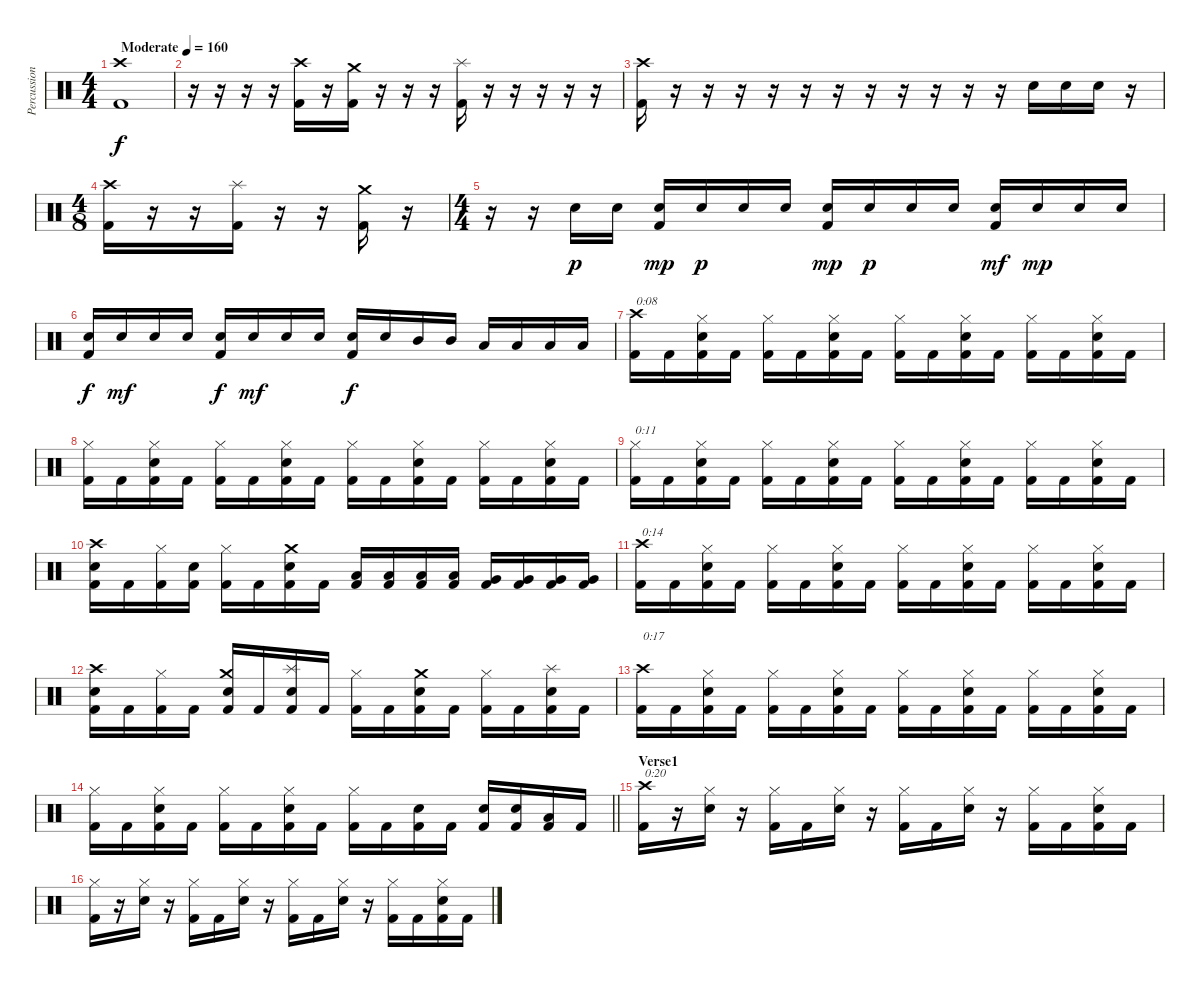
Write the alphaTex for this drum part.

\track ("Percussion" "Percussion") {instrument percussion}
\staff {score}
\articulation defaults
\ts (4 4)
\tempo (160 "Moderate")
\clef neutral
\ks c
("Crash high (hit)" "Kick (hit) 2").1{dy f} |
r.16 r.16 r.16 r.16 ("Crash high (hit)" "Kick (hit) 2").16 r.16 ("Crash medium (hit)" "Kick (hit) 2").16 r.16 r.16 r.16 ("Splash (hit)" "Kick (hit) 2").16 r.16 r.16 r.16 r.16 r.16 |
("Crash high (hit)" "Kick (hit) 2").16 r.16 r.16 r.16 r.16 r.16 r.16 r.16 r.16 r.16 r.16 r.16 "Electric Snare (hit)".16 "Electric Snare (hit)".16 "Electric Snare (hit)".16 r.16 |
\ts (4 8)
("Crash high (hit)" "Kick (hit) 2").16 r.16 r.16 ("Splash (hit)" "Kick (hit) 2").16 r.16 r.16 ("Crash medium (hit)" "Kick (hit) 2").16 r.16 |
\ts (4 4)
r.16 r.16 "Electric Snare (hit)".16{dy p} "Electric Snare (hit)".16 ("Electric Snare (hit)" "Kick (hit) 2").16{dy mp} "Electric Snare (hit)".16{dy p} "Electric Snare (hit)".16 "Electric Snare (hit)".16 ("Electric Snare (hit)" "Kick (hit) 2").16{dy mp} "Electric Snare (hit)".16{dy p} "Electric Snare (hit)".16 "Electric Snare (hit)".16 ("Electric Snare (hit)" "Kick (hit) 2").16{dy mf} "Electric Snare (hit)".16{dy mp} "Electric Snare (hit)".16 "Electric Snare (hit)".16 |
("Electric Snare (hit)" "Kick (hit) 2").16{dy f} "Electric Snare (hit)".16{dy mf} "Electric Snare (hit)".16 "Electric Snare (hit)".16 ("Electric Snare (hit)" "Kick (hit) 2").16{dy f} "Electric Snare (hit)".16{dy mf} "Electric Snare (hit)".16 "Electric Snare (hit)".16 ("Electric Snare (hit)" "Kick (hit) 2").16{dy f} "Electric Snare (hit)".16 "Mid Tom (hit)".16 "Mid Tom (hit)".16 "Low Tom (hit)".16 "Low Tom (hit)".16 "Low Tom (hit)".16 "Low Tom (hit)".16 |
("Crash high (hit)" "Kick (hit) 2").16{txt "0:08"} "Kick (hit) 2".16 ("Hi-Hat (closed)" "Electric Snare (hit)" "Kick (hit) 2").16 "Kick (hit) 2".16 ("Hi-Hat (closed)" "Kick (hit) 2").16 "Kick (hit) 2".16 ("Hi-Hat (closed)" "Electric Snare (hit)" "Kick (hit) 2").16 "Kick (hit) 2".16 ("Hi-Hat (closed)" "Kick (hit) 2").16 "Kick (hit) 2".16 ("Hi-Hat (closed)" "Electric Snare (hit)" "Kick (hit) 2").16 "Kick (hit) 2".16 ("Hi-Hat (closed)" "Kick (hit) 2").16 "Kick (hit) 2".16 ("Hi-Hat (closed)" "Electric Snare (hit)" "Kick (hit) 2").16 "Kick (hit) 2".16 |
("Hi-Hat (closed)" "Kick (hit) 2").16 "Kick (hit) 2".16 ("Hi-Hat (closed)" "Electric Snare (hit)" "Kick (hit) 2").16 "Kick (hit) 2".16 ("Hi-Hat (closed)" "Kick (hit) 2").16 "Kick (hit) 2".16 ("Hi-Hat (closed)" "Electric Snare (hit)" "Kick (hit) 2").16 "Kick (hit) 2".16 ("Hi-Hat (closed)" "Kick (hit) 2").16 "Kick (hit) 2".16 ("Hi-Hat (closed)" "Electric Snare (hit)" "Kick (hit) 2").16 "Kick (hit) 2".16 ("Hi-Hat (closed)" "Kick (hit) 2").16 "Kick (hit) 2".16 ("Hi-Hat (closed)" "Electric Snare (hit)" "Kick (hit) 2").16 "Kick (hit) 2".16 |
("Hi-Hat (closed)" "Kick (hit) 2").16{txt "0:11"} "Kick (hit) 2".16 ("Hi-Hat (closed)" "Electric Snare (hit)" "Kick (hit) 2").16 "Kick (hit) 2".16 ("Hi-Hat (closed)" "Kick (hit) 2").16 "Kick (hit) 2".16 ("Hi-Hat (closed)" "Electric Snare (hit)" "Kick (hit) 2").16 "Kick (hit) 2".16 ("Hi-Hat (closed)" "Kick (hit) 2").16 "Kick (hit) 2".16 ("Hi-Hat (closed)" "Electric Snare (hit)" "Kick (hit) 2").16 "Kick (hit) 2".16 ("Hi-Hat (closed)" "Kick (hit) 2").16 "Kick (hit) 2".16 ("Hi-Hat (closed)" "Electric Snare (hit)" "Kick (hit) 2").16 "Kick (hit) 2".16 |
("Crash high (hit)" "Electric Snare (hit)" "Kick (hit) 2").16 "Kick (hit) 2".16 ("Hi-Hat (closed)" "Kick (hit) 2").16 ("Electric Snare (hit)" "Kick (hit) 2").16 ("Hi-Hat (closed)" "Kick (hit) 2").16 "Kick (hit) 2".16 ("Crash medium (hit)" "Electric Snare (hit)" "Kick (hit) 2").16 "Kick (hit) 2".16 ("Low Tom (hit)" "Kick (hit) 2").16 ("Low Tom (hit)" "Kick (hit) 2").16 ("Low Tom (hit)" "Kick (hit) 2").16 ("Low Tom (hit)" "Kick (hit) 2").16 ("Very Low Tom (hit)" "Kick (hit) 2").16 ("Very Low Tom (hit)" "Kick (hit) 2").16 ("Very Low Tom (hit)" "Kick (hit) 2").16 ("Very Low Tom (hit)" "Kick (hit) 2").16 |
("Crash high (hit)" "Kick (hit) 2").16{txt "0:14"} "Kick (hit) 2".16 ("Hi-Hat (closed)" "Electric Snare (hit)" "Kick (hit) 2").16 "Kick (hit) 2".16 ("Hi-Hat (closed)" "Kick (hit) 2").16 "Kick (hit) 2".16 ("Hi-Hat (closed)" "Electric Snare (hit)" "Kick (hit) 2").16 "Kick (hit) 2".16 ("Hi-Hat (closed)" "Kick (hit) 2").16 "Kick (hit) 2".16 ("Hi-Hat (closed)" "Electric Snare (hit)" "Kick (hit) 2").16 "Kick (hit) 2".16 ("Hi-Hat (closed)" "Kick (hit) 2").16 "Kick (hit) 2".16 ("Hi-Hat (closed)" "Electric Snare (hit)" "Kick (hit) 2").16 "Kick (hit) 2".16 |
("Crash high (hit)" "Electric Snare (hit)" "Kick (hit) 2").16 "Kick (hit) 2".16 ("Hi-Hat (closed)" "Kick (hit) 2").16 "Kick (hit) 2".16 ("Crash medium (hit)" "Electric Snare (hit)" "Kick (hit) 2").16 "Kick (hit) 2".16 ("Splash (hit)" "Electric Snare (hit)" "Kick (hit) 2").16 "Kick (hit) 2".16 ("Hi-Hat (closed)" "Kick (hit) 2").16 "Kick (hit) 2".16 ("Crash medium (hit)" "Electric Snare (hit)" "Kick (hit) 2").16 "Kick (hit) 2".16 ("Hi-Hat (closed)" "Kick (hit) 2").16 "Kick (hit) 2".16 ("Splash (hit)" "Electric Snare (hit)" "Kick (hit) 2").16 "Kick (hit) 2".16 |
("Crash high (hit)" "Kick (hit) 2").16{txt "0:17"} "Kick (hit) 2".16 ("Hi-Hat (closed)" "Electric Snare (hit)" "Kick (hit) 2").16 "Kick (hit) 2".16 ("Hi-Hat (closed)" "Kick (hit) 2").16 "Kick (hit) 2".16 ("Hi-Hat (closed)" "Electric Snare (hit)" "Kick (hit) 2").16 "Kick (hit) 2".16 ("Hi-Hat (closed)" "Kick (hit) 2").16 "Kick (hit) 2".16 ("Hi-Hat (closed)" "Electric Snare (hit)" "Kick (hit) 2").16 "Kick (hit) 2".16 ("Hi-Hat (closed)" "Kick (hit) 2").16 "Kick (hit) 2".16 ("Hi-Hat (closed)" "Electric Snare (hit)" "Kick (hit) 2").16 "Kick (hit) 2".16 |
\barLineRight lightlight
("Hi-Hat (closed)" "Kick (hit) 2").16 "Kick (hit) 2".16 ("Hi-Hat (closed)" "Electric Snare (hit)" "Kick (hit) 2").16 "Kick (hit) 2".16 ("Hi-Hat (closed)" "Kick (hit) 2").16 "Kick (hit) 2".16 ("Hi-Hat (closed)" "Electric Snare (hit)" "Kick (hit) 2").16 "Kick (hit) 2".16 ("Hi-Hat (closed)" "Kick (hit) 2").16 "Kick (hit) 2".16 ("Electric Snare (hit)" "Kick (hit) 2").16 "Kick (hit) 2".16 ("Electric Snare (hit)" "Kick (hit) 2").16 ("Electric Snare (hit)" "Kick (hit) 2").16 ("Low Tom (hit)" "Kick (hit) 2").16 "Kick (hit) 2".16 |
\section ("" "Verse1")
("Crash high (hit)" "Kick (hit) 2").16{txt "0:20"} r.16 ("Hi-Hat (closed)" "Electric Snare (hit)").16 r.16 ("Hi-Hat (closed)" "Kick (hit) 2").16 "Kick (hit) 2".16 ("Hi-Hat (closed)" "Electric Snare (hit)").16 r.16 ("Hi-Hat (closed)" "Kick (hit) 2").16 "Kick (hit) 2".16 ("Hi-Hat (closed)" "Electric Snare (hit)").16 r.16 ("Hi-Hat (closed)" "Kick (hit) 2").16 "Kick (hit) 2".16 ("Hi-Hat (closed)" "Electric Snare (hit)" "Kick (hit) 2").16 "Kick (hit) 2".16 |
("Hi-Hat (closed)" "Kick (hit) 2").16 r.16 ("Hi-Hat (closed)" "Electric Snare (hit)").16 r.16 ("Hi-Hat (closed)" "Kick (hit) 2").16 "Kick (hit) 2".16 ("Hi-Hat (closed)" "Electric Snare (hit)").16 r.16 ("Hi-Hat (closed)" "Kick (hit) 2").16 "Kick (hit) 2".16 ("Hi-Hat (closed)" "Electric Snare (hit)").16 r.16 ("Hi-Hat (closed)" "Kick (hit) 2").16 "Kick (hit) 2".16 ("Hi-Hat (closed)" "Electric Snare (hit)" "Kick (hit) 2").16 "Kick (hit) 2".16
